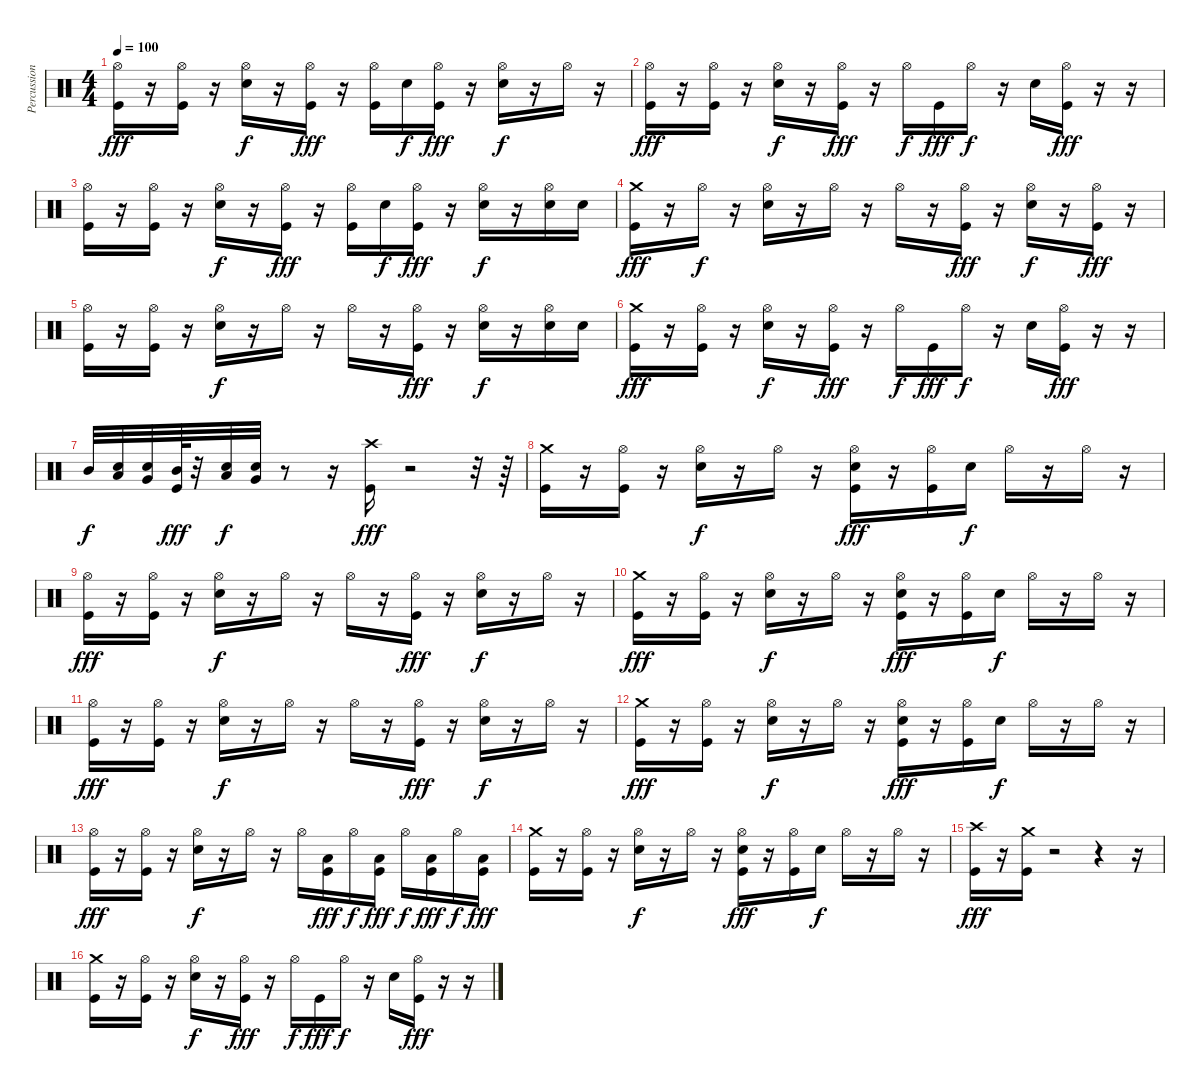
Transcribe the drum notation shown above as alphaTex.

\track ("Percussion" "Percussion") {instrument percussion}
\staff {score}
\articulation defaults
\ts (4 4)
\tempo 100
\clef neutral
\ks c
("Hi-Hat (open)" "Kick (hit)").16{dy fff} r.16 ("Hi-Hat (open)" "Kick (hit)").16 r.16 ("Hi-Hat (open)" "Electric Snare (hit)").16{dy f} r.16 ("Hi-Hat (open)" "Kick (hit)").16{dy fff} r.16 ("Hi-Hat (open)" "Kick (hit)").16 "Electric Snare (hit)".16{dy f} ("Hi-Hat (open)" "Kick (hit)").16{dy fff} r.16 ("Hi-Hat (open)" "Electric Snare (hit)").16{dy f} r.16 "Hi-Hat (open)".16 r.16 |
("Hi-Hat (open)" "Kick (hit)").16{dy fff} r.16 ("Hi-Hat (open)" "Kick (hit)").16 r.16 ("Hi-Hat (open)" "Electric Snare (hit)").16{dy f} r.16 ("Hi-Hat (open)" "Kick (hit)").16{dy fff} r.16 "Hi-Hat (open)".16{dy f} "Kick (hit)".16{dy fff} "Hi-Hat (open)".16{dy f} r.16 "Electric Snare (hit)".16 ("Hi-Hat (open)" "Kick (hit)").16{dy fff} r.16 r.16 |
("Hi-Hat (open)" "Kick (hit)").16 r.16 ("Hi-Hat (open)" "Kick (hit)").16 r.16 ("Hi-Hat (open)" "Electric Snare (hit)").16{dy f} r.16 ("Hi-Hat (open)" "Kick (hit)").16{dy fff} r.16 ("Hi-Hat (open)" "Kick (hit)").16 "Electric Snare (hit)".16{dy f} ("Hi-Hat (open)" "Kick (hit)").16{dy fff} r.16 ("Hi-Hat (open)" "Electric Snare (hit)").16{dy f} r.16 ("Hi-Hat (open)" "Electric Snare (hit)").16 "Electric Snare (hit)".16 |
("Crash medium (hit)" "Kick (hit)").16{dy fff} r.16 "Hi-Hat (open)".16{dy f} r.16 ("Hi-Hat (open)" "Electric Snare (hit)").16 r.16 "Hi-Hat (open)".16 r.16 "Hi-Hat (open)".16 r.16 ("Hi-Hat (open)" "Kick (hit)").16{dy fff} r.16 ("Hi-Hat (open)" "Electric Snare (hit)").16{dy f} r.16 ("Hi-Hat (open)" "Kick (hit)").16{dy fff} r.16 |
("Hi-Hat (open)" "Kick (hit)").16 r.16 ("Hi-Hat (open)" "Kick (hit)").16 r.16 ("Hi-Hat (open)" "Electric Snare (hit)").16{dy f} r.16 "Hi-Hat (open)".16 r.16 "Hi-Hat (open)".16 r.16 ("Hi-Hat (open)" "Kick (hit)").16{dy fff} r.16 ("Hi-Hat (open)" "Electric Snare (hit)").16{dy f} r.16 ("Hi-Hat (open)" "Electric Snare (hit)").16 "Electric Snare (hit)".16 |
("Crash medium (hit)" "Kick (hit)").16{dy fff} r.16 ("Hi-Hat (open)" "Kick (hit)").16 r.16 ("Hi-Hat (open)" "Electric Snare (hit)").16{dy f} r.16 ("Hi-Hat (open)" "Kick (hit)").16{dy fff} r.16 "Hi-Hat (open)".16{dy f} "Kick (hit)".16{dy fff} "Hi-Hat (open)".16{dy f} r.16 "Electric Snare (hit)".16 ("Hi-Hat (open)" "Kick (hit)").16{dy fff} r.16 r.16 |
"Mid Tom (hit)".32{dy f} ("Low Tom (hit)" "Electric Snare (hit)").32 ("Very Low Tom (hit)" "Electric Snare (hit)").32 ("Mid Tom (hit)" "Kick (hit)").64{dy fff} r.32 ("Low Tom (hit)" "Electric Snare (hit)").32{dy f} ("Very Low Tom (hit)" "Electric Snare (hit)").32 r.8 r.16 ("Crash high (hit)" "Kick (hit)").16{dy fff} r.2 r.32 r.64 |
("Crash medium (hit)" "Kick (hit)").16 r.16 ("Hi-Hat (open)" "Kick (hit)").16 r.16 ("Hi-Hat (open)" "Electric Snare (hit)").16{dy f} r.16 "Hi-Hat (open)".16 r.16 ("Hi-Hat (open)" "Electric Snare (hit)" "Kick (hit)").16{dy fff} r.16 ("Hi-Hat (open)" "Kick (hit)").16 "Electric Snare (hit)".16{dy f} "Hi-Hat (open)".16 r.16 "Hi-Hat (open)".16 r.16 |
("Hi-Hat (open)" "Kick (hit)").16{dy fff} r.16 ("Hi-Hat (open)" "Kick (hit)").16 r.16 ("Hi-Hat (open)" "Electric Snare (hit)").16{dy f} r.16 "Hi-Hat (open)".16 r.16 "Hi-Hat (open)".16 r.16 ("Hi-Hat (open)" "Kick (hit)").16{dy fff} r.16 ("Hi-Hat (open)" "Electric Snare (hit)").16{dy f} r.16 "Hi-Hat (open)".16 r.16 |
("Crash medium (hit)" "Kick (hit)").16{dy fff} r.16 ("Hi-Hat (open)" "Kick (hit)").16 r.16 ("Hi-Hat (open)" "Electric Snare (hit)").16{dy f} r.16 "Hi-Hat (open)".16 r.16 ("Hi-Hat (open)" "Electric Snare (hit)" "Kick (hit)").16{dy fff} r.16 ("Hi-Hat (open)" "Kick (hit)").16 "Electric Snare (hit)".16{dy f} "Hi-Hat (open)".16 r.16 "Hi-Hat (open)".16 r.16 |
("Hi-Hat (open)" "Kick (hit)").16{dy fff} r.16 ("Hi-Hat (open)" "Kick (hit)").16 r.16 ("Hi-Hat (open)" "Electric Snare (hit)").16{dy f} r.16 "Hi-Hat (open)".16 r.16 "Hi-Hat (open)".16 r.16 ("Hi-Hat (open)" "Kick (hit)").16{dy fff} r.16 ("Hi-Hat (open)" "Electric Snare (hit)").16{dy f} r.16 "Hi-Hat (open)".16 r.16 |
("Crash medium (hit)" "Kick (hit)").16{dy fff} r.16 ("Hi-Hat (open)" "Kick (hit)").16 r.16 ("Hi-Hat (open)" "Electric Snare (hit)").16{dy f} r.16 "Hi-Hat (open)".16 r.16 ("Hi-Hat (open)" "Electric Snare (hit)" "Kick (hit)").16{dy fff} r.16 ("Hi-Hat (open)" "Kick (hit)").16 "Electric Snare (hit)".16{dy f} "Hi-Hat (open)".16 r.16 "Hi-Hat (open)".16 r.16 |
("Hi-Hat (open)" "Kick (hit)").16{dy fff} r.16 ("Hi-Hat (open)" "Kick (hit)").16 r.16 ("Hi-Hat (open)" "Electric Snare (hit)").16{dy f} r.16 "Hi-Hat (open)".16 r.16 "Hi-Hat (open)".16 ("Low Floor Tom (hit)" "Kick (hit)").16{dy fff} "Hi-Hat (open)".16{dy f} ("Low Floor Tom (hit)" "Kick (hit)").16{dy fff} "Hi-Hat (open)".16{dy f} ("Low Floor Tom (hit)" "Kick (hit)").16{dy fff} "Hi-Hat (open)".16{dy f} ("Low Floor Tom (hit)" "Kick (hit)").16{dy fff} |
("Crash medium (hit)" "Kick (hit)").16 r.16 ("Hi-Hat (open)" "Kick (hit)").16 r.16 ("Hi-Hat (open)" "Electric Snare (hit)").16{dy f} r.16 "Hi-Hat (open)".16 r.16 ("Hi-Hat (open)" "Electric Snare (hit)" "Kick (hit)").16{dy fff} r.16 ("Hi-Hat (open)" "Kick (hit)").16 "Electric Snare (hit)".16{dy f} "Hi-Hat (open)".16 r.16 "Hi-Hat (open)".16 r.16 |
("Crash high (hit)" "Kick (hit)").16{dy fff} r.16 ("Crash medium (hit)" "Kick (hit)").16 r.2 r.4 r.16 |
("Crash medium (hit)" "Kick (hit)").16 r.16 ("Hi-Hat (open)" "Kick (hit)").16 r.16 ("Hi-Hat (open)" "Electric Snare (hit)").16{dy f} r.16 ("Hi-Hat (open)" "Kick (hit)").16{dy fff} r.16 "Hi-Hat (open)".16{dy f} "Kick (hit)".16{dy fff} "Hi-Hat (open)".16{dy f} r.16 "Electric Snare (hit)".16 ("Hi-Hat (open)" "Kick (hit)").16{dy fff} r.16 r.16
